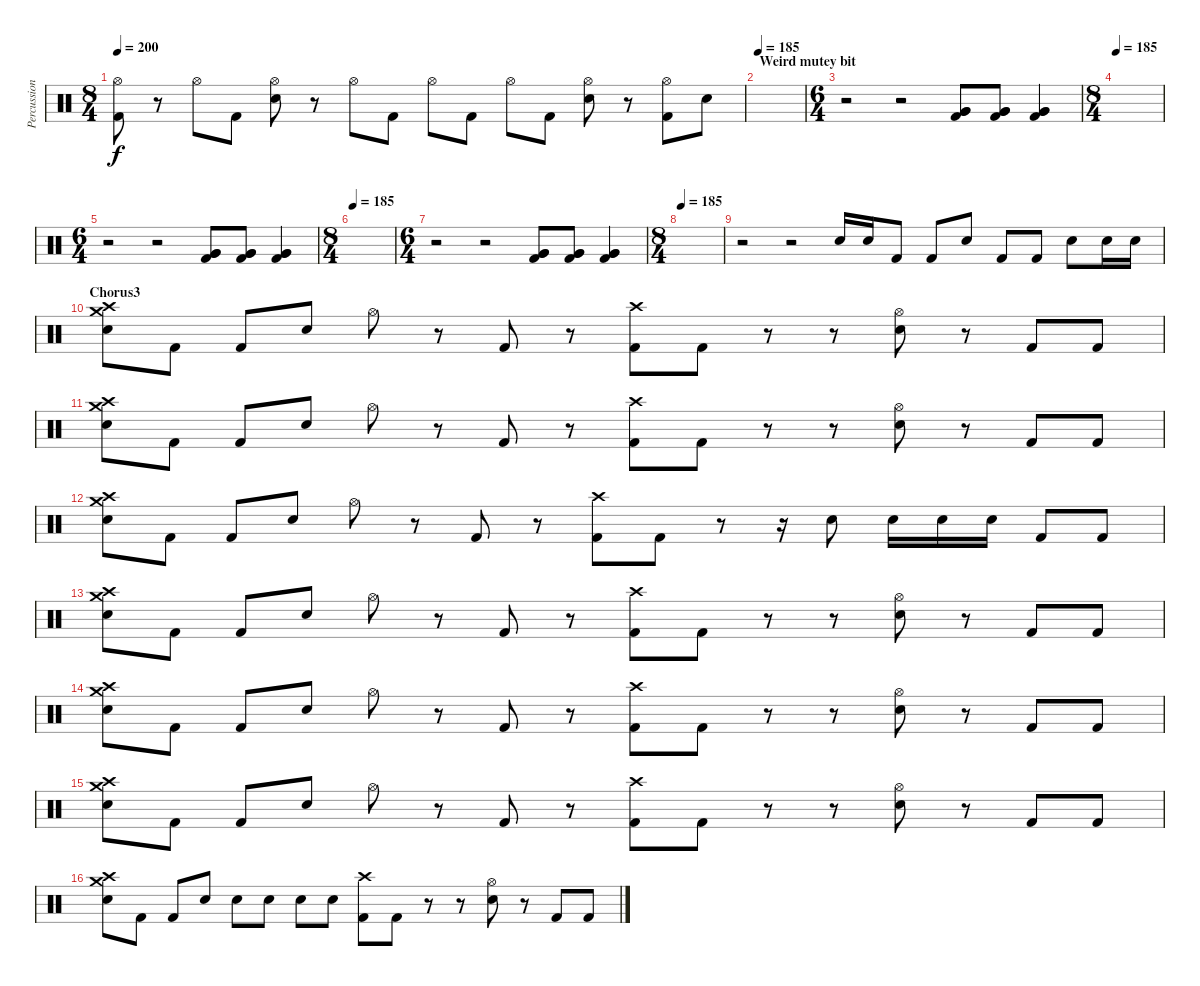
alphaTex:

\track ("Percussion" "Percussion") {instrument percussion}
\staff {score}
\articulation defaults
\ts (8 4)
\tempo 200
\clef neutral
\ks c
("Hi-Hat (open)" "Kick (hit) 2").8{dy f} r.8 "Hi-Hat (open)".8 "Kick (hit) 2".8 ("Hi-Hat (open)" "Electric Snare (hit)").8 r.8 "Hi-Hat (open)".8 "Kick (hit) 2".8 "Hi-Hat (open)".8 "Kick (hit) 2".8 "Hi-Hat (open)".8 "Kick (hit) 2".8 ("Hi-Hat (open)" "Electric Snare (hit)").8 r.8 ("Hi-Hat (open)" "Kick (hit) 2").8 "Electric Snare (hit)".8 |
\section ("" "Weird mutey bit")
\tempo 185
|
\ts (6 4)
r.2 r.2 ("Very Low Tom (hit)" "Very Low Tom (hit)" "Kick (hit) 2").8 ("Very Low Tom (hit)" "Very Low Tom (hit)" "Kick (hit) 2").8 ("Very Low Tom (hit)" "Very Low Tom (hit)" "Kick (hit) 2").4 |
\ts (8 4)
\tempo 185
|
\ts (6 4)
r.2 r.2 ("Very Low Tom (hit)" "Very Low Tom (hit)" "Kick (hit) 2").8 ("Very Low Tom (hit)" "Very Low Tom (hit)" "Kick (hit) 2").8 ("Very Low Tom (hit)" "Very Low Tom (hit)" "Kick (hit) 2").4 |
\ts (8 4)
\tempo 185
|
\ts (6 4)
r.2 r.2 ("Very Low Tom (hit)" "Very Low Tom (hit)" "Kick (hit) 2").8 ("Very Low Tom (hit)" "Very Low Tom (hit)" "Kick (hit) 2").8 ("Very Low Tom (hit)" "Very Low Tom (hit)" "Kick (hit) 2").4 |
\ts (8 4)
\tempo 185
|
r.2 r.2 "Electric Snare (hit)".16 "Electric Snare (hit)".16 "Kick (hit) 2".8 "Kick (hit) 2".8 "Electric Snare (hit)".8 "Kick (hit) 2".8 "Kick (hit) 2".8 "Electric Snare (hit)".8 "Electric Snare (hit)".16 "Electric Snare (hit)".16 |
\section ("" "Chorus3")
("Crash high (hit)" "Crash medium (hit)" "Electric Snare (hit)").8 "Kick (hit) 2".8 "Kick (hit) 2".8 "Electric Snare (hit)".8 "Hi-Hat (open)".8 r.8 "Kick (hit) 2".8 r.8 ("Crash high (hit)" "Kick (hit) 2").8 "Kick (hit) 2".8 r.8 r.8 ("Hi-Hat (open)" "Electric Snare (hit)").8 r.8 "Kick (hit) 2".8 "Kick (hit) 2".8 |
("Crash high (hit)" "Crash medium (hit)" "Electric Snare (hit)").8 "Kick (hit) 2".8 "Kick (hit) 2".8 "Electric Snare (hit)".8 "Hi-Hat (open)".8 r.8 "Kick (hit) 2".8 r.8 ("Crash high (hit)" "Kick (hit) 2").8 "Kick (hit) 2".8 r.8 r.8 ("Hi-Hat (open)" "Electric Snare (hit)").8 r.8 "Kick (hit) 2".8 "Kick (hit) 2".8 |
("Crash high (hit)" "Crash medium (hit)" "Electric Snare (hit)").8 "Kick (hit) 2".8 "Kick (hit) 2".8 "Electric Snare (hit)".8 "Hi-Hat (open)".8 r.8 "Kick (hit) 2".8 r.8 ("Crash high (hit)" "Kick (hit) 2").8 "Kick (hit) 2".8 r.8 r.16 "Electric Snare (hit)".8 "Electric Snare (hit)".16 "Electric Snare (hit)".16 "Electric Snare (hit)".16 "Kick (hit) 2".8 "Kick (hit) 2".8 |
("Crash high (hit)" "Crash medium (hit)" "Electric Snare (hit)").8 "Kick (hit) 2".8 "Kick (hit) 2".8 "Electric Snare (hit)".8 "Hi-Hat (open)".8 r.8 "Kick (hit) 2".8 r.8 ("Crash high (hit)" "Kick (hit) 2").8 "Kick (hit) 2".8 r.8 r.8 ("Hi-Hat (open)" "Electric Snare (hit)").8 r.8 "Kick (hit) 2".8 "Kick (hit) 2".8 |
("Crash high (hit)" "Crash medium (hit)" "Electric Snare (hit)").8 "Kick (hit) 2".8 "Kick (hit) 2".8 "Electric Snare (hit)".8 "Hi-Hat (open)".8 r.8 "Kick (hit) 2".8 r.8 ("Crash high (hit)" "Kick (hit) 2").8 "Kick (hit) 2".8 r.8 r.8 ("Hi-Hat (open)" "Electric Snare (hit)").8 r.8 "Kick (hit) 2".8 "Kick (hit) 2".8 |
("Crash high (hit)" "Crash medium (hit)" "Electric Snare (hit)").8 "Kick (hit) 2".8 "Kick (hit) 2".8 "Electric Snare (hit)".8 "Hi-Hat (open)".8 r.8 "Kick (hit) 2".8 r.8 ("Crash high (hit)" "Kick (hit) 2").8 "Kick (hit) 2".8 r.8 r.8 ("Hi-Hat (open)" "Electric Snare (hit)").8 r.8 "Kick (hit) 2".8 "Kick (hit) 2".8 |
("Crash high (hit)" "Crash medium (hit)" "Electric Snare (hit)").8 "Kick (hit) 2".8 "Kick (hit) 2".8 "Electric Snare (hit)".8 "Electric Snare (hit)".8 "Electric Snare (hit)".8 "Electric Snare (hit)".8 "Electric Snare (hit)".8 ("Crash high (hit)" "Kick (hit) 2").8 "Kick (hit) 2".8 r.8 r.8 ("Hi-Hat (open)" "Electric Snare (hit)").8 r.8 "Kick (hit) 2".8 "Kick (hit) 2".8
